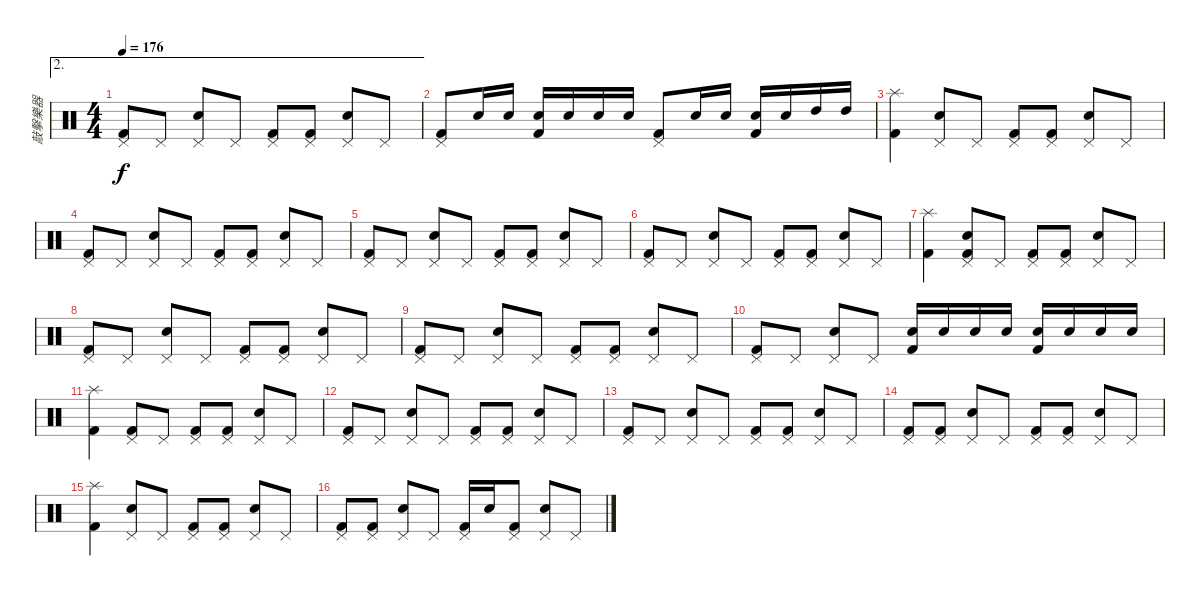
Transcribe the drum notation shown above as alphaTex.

\track ("敲擊樂器" "敲擊樂器") {instrument percussion}
\staff {score}
\articulation defaults
\ae 2
\ts (4 4)
\tempo 176
\clef neutral
\ks c
("Pedal Hi-Hat (hit)" "Kick (hit) 2").8{dy f} "Pedal Hi-Hat (hit)".8 ("Pedal Hi-Hat (hit)" "Snare (hit) 2").8 "Pedal Hi-Hat (hit)".8 ("Kick (hit) 2" "Pedal Hi-Hat (hit)").8 ("Kick (hit) 2" "Pedal Hi-Hat (hit)").8 ("Snare (hit) 2" "Pedal Hi-Hat (hit)").8 "Pedal Hi-Hat (hit)".8 |
("Pedal Hi-Hat (hit)" "Kick (hit) 2").8 "Snare (hit) 2".16 "Snare (hit) 2".16 ("Snare (hit) 2" "Kick (hit) 2").16 "Snare (hit) 2".16 "Snare (hit) 2".16 "Snare (hit) 2".16 ("Pedal Hi-Hat (hit)" "Kick (hit) 2").8 "Snare (hit) 2".16 "Snare (hit) 2".16 ("Snare (hit) 2" "Kick (hit) 2").16 "Snare (hit) 2".16 "High Tom (hit)".16 "High Tom (hit)".16 |
("Splash (hit)" "Kick (hit) 2").4 ("Pedal Hi-Hat (hit)" "Snare (hit) 2").8 "Pedal Hi-Hat (hit)".8 ("Pedal Hi-Hat (hit)" "Kick (hit) 2").8 ("Pedal Hi-Hat (hit)" "Kick (hit) 2").8 ("Pedal Hi-Hat (hit)" "Snare (hit) 2").8 "Pedal Hi-Hat (hit)".8 |
("Pedal Hi-Hat (hit)" "Kick (hit) 2").8 "Pedal Hi-Hat (hit)".8 ("Snare (hit) 2" "Pedal Hi-Hat (hit)").8 "Pedal Hi-Hat (hit)".8 ("Pedal Hi-Hat (hit)" "Kick (hit) 2").8 ("Kick (hit) 2" "Pedal Hi-Hat (hit)").8 ("Pedal Hi-Hat (hit)" "Snare (hit) 2").8 "Pedal Hi-Hat (hit)".8 |
("Pedal Hi-Hat (hit)" "Kick (hit) 2").8 "Pedal Hi-Hat (hit)".8 ("Snare (hit) 2" "Pedal Hi-Hat (hit)").8 "Pedal Hi-Hat (hit)".8 ("Pedal Hi-Hat (hit)" "Kick (hit) 2").8 ("Kick (hit) 2" "Pedal Hi-Hat (hit)").8 ("Pedal Hi-Hat (hit)" "Snare (hit) 2").8 "Pedal Hi-Hat (hit)".8 |
("Pedal Hi-Hat (hit)" "Kick (hit) 2").8 "Pedal Hi-Hat (hit)".8 ("Snare (hit) 2" "Pedal Hi-Hat (hit)").8 "Pedal Hi-Hat (hit)".8 ("Pedal Hi-Hat (hit)" "Kick (hit) 2").8 ("Kick (hit) 2" "Pedal Hi-Hat (hit)").8 ("Pedal Hi-Hat (hit)" "Snare (hit) 2").8 "Pedal Hi-Hat (hit)".8 |
("Splash (hit)" "Kick (hit) 2").4 ("Pedal Hi-Hat (hit)" "Snare (hit) 2" "Kick (hit) 2").8 "Pedal Hi-Hat (hit)".8 ("Kick (hit) 2" "Pedal Hi-Hat (hit)").8 ("Kick (hit) 2" "Pedal Hi-Hat (hit)").8 ("Snare (hit) 2" "Pedal Hi-Hat (hit)").8 "Pedal Hi-Hat (hit)".8 |
("Pedal Hi-Hat (hit)" "Kick (hit) 2").8 "Pedal Hi-Hat (hit)".8 ("Snare (hit) 2" "Pedal Hi-Hat (hit)").8 "Pedal Hi-Hat (hit)".8 ("Pedal Hi-Hat (hit)" "Kick (hit) 2").8 ("Kick (hit) 2" "Pedal Hi-Hat (hit)").8 ("Pedal Hi-Hat (hit)" "Snare (hit) 2").8 "Pedal Hi-Hat (hit)".8 |
("Pedal Hi-Hat (hit)" "Kick (hit) 2").8 "Pedal Hi-Hat (hit)".8 ("Snare (hit) 2" "Pedal Hi-Hat (hit)").8 "Pedal Hi-Hat (hit)".8 ("Pedal Hi-Hat (hit)" "Kick (hit) 2").8 ("Kick (hit) 2" "Pedal Hi-Hat (hit)").8 ("Pedal Hi-Hat (hit)" "Snare (hit) 2").8 "Pedal Hi-Hat (hit)".8 |
("Pedal Hi-Hat (hit)" "Kick (hit) 2").8 "Pedal Hi-Hat (hit)".8 ("Snare (hit) 2" "Pedal Hi-Hat (hit)").8 "Pedal Hi-Hat (hit)".8 ("Kick (hit) 2" "Snare (hit) 2").16 "Snare (hit) 2".16 "Snare (hit) 2".16 "Snare (hit) 2".16 ("Snare (hit) 2" "Kick (hit) 2").16 "Snare (hit) 2".16 "Snare (hit) 2".16 "Snare (hit) 2".16 |
("Kick (hit) 2" "Splash (hit)").4 ("Kick (hit) 2" "Pedal Hi-Hat (hit)").8 "Pedal Hi-Hat (hit)".8 ("Kick (hit) 2" "Pedal Hi-Hat (hit)").8 ("Kick (hit) 2" "Pedal Hi-Hat (hit)").8 ("Snare (hit) 2" "Pedal Hi-Hat (hit)").8 "Pedal Hi-Hat (hit)".8 |
("Pedal Hi-Hat (hit)" "Kick (hit) 2").8 "Pedal Hi-Hat (hit)".8 ("Snare (hit) 2" "Pedal Hi-Hat (hit)").8 "Pedal Hi-Hat (hit)".8 ("Pedal Hi-Hat (hit)" "Kick (hit) 2").8 ("Kick (hit) 2" "Pedal Hi-Hat (hit)").8 ("Pedal Hi-Hat (hit)" "Snare (hit) 2").8 "Pedal Hi-Hat (hit)".8 |
("Pedal Hi-Hat (hit)" "Kick (hit) 2").8 "Pedal Hi-Hat (hit)".8 ("Snare (hit) 2" "Pedal Hi-Hat (hit)").8 "Pedal Hi-Hat (hit)".8 ("Pedal Hi-Hat (hit)" "Kick (hit) 2").8 ("Kick (hit) 2" "Pedal Hi-Hat (hit)").8 ("Pedal Hi-Hat (hit)" "Snare (hit) 2").8 "Pedal Hi-Hat (hit)".8 |
("Pedal Hi-Hat (hit)" "Kick (hit) 2").8 ("Pedal Hi-Hat (hit)" "Kick (hit) 2").8 ("Snare (hit) 2" "Pedal Hi-Hat (hit)").8 "Pedal Hi-Hat (hit)".8 ("Pedal Hi-Hat (hit)" "Kick (hit) 2").8 ("Kick (hit) 2" "Pedal Hi-Hat (hit)").8 ("Pedal Hi-Hat (hit)" "Snare (hit) 2").8 "Pedal Hi-Hat (hit)".8 |
("Kick (hit) 2" "Splash (hit)").4 ("Snare (hit) 2" "Pedal Hi-Hat (hit)").8 "Pedal Hi-Hat (hit)".8 ("Pedal Hi-Hat (hit)" "Kick (hit) 2").8 ("Pedal Hi-Hat (hit)" "Kick (hit) 2").8 ("Pedal Hi-Hat (hit)" "Snare (hit) 2").8 "Pedal Hi-Hat (hit)".8 |
("Kick (hit) 2" "Pedal Hi-Hat (hit)").8 ("Kick (hit) 2" "Pedal Hi-Hat (hit)").8 ("Snare (hit) 2" "Pedal Hi-Hat (hit)").8 "Pedal Hi-Hat (hit)".8 ("Pedal Hi-Hat (hit)" "Kick (hit) 2").16 "Snare (hit) 2".16 ("Pedal Hi-Hat (hit)" "Kick (hit) 2").8 ("Pedal Hi-Hat (hit)" "Snare (hit) 2").8 "Pedal Hi-Hat (hit)".8
